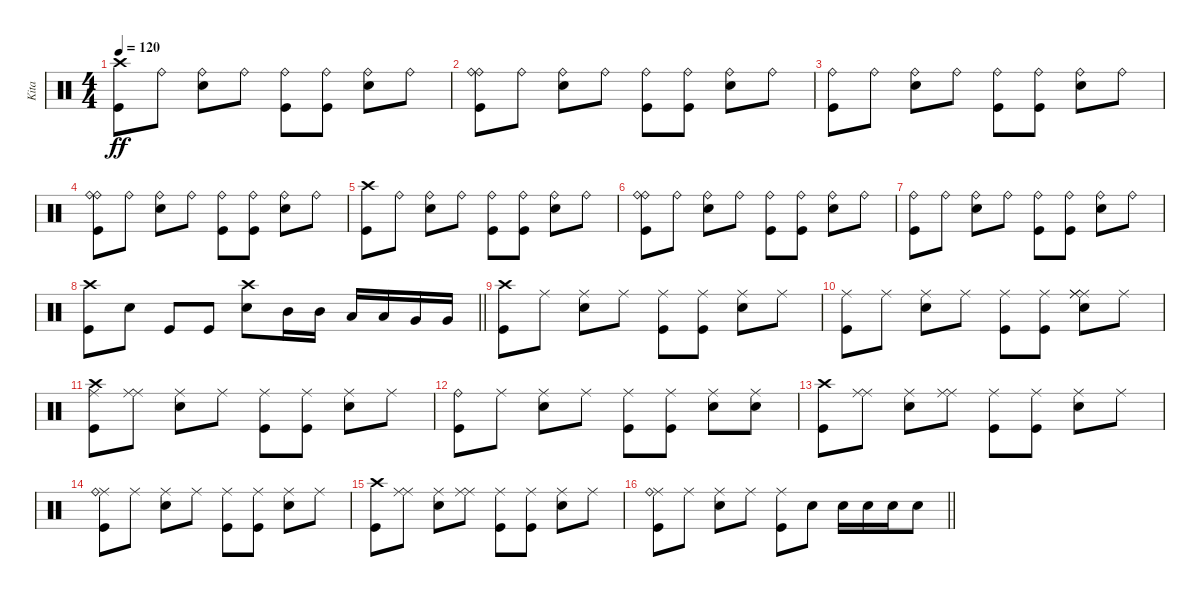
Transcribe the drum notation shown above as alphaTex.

\track ("Kita" "Kita") {instrument percussion}
\staff {score}
\articulation defaults
\ts (4 4)
\tempo 120
\clef neutral
\ks c
("Kick (hit)" "Crash high (hit)").8{dy ff} "Ride (bell)".8 ("Snare (hit) 2" "Ride (bell)").8 "Ride (bell)".8 ("Ride (bell)" "Kick (hit)").8 ("Ride (bell)" "Kick (hit)").8 ("Ride (bell)" "Snare (hit) 2").8 "Ride (bell)".8 |
("Ride (bell)" "Ride (bell)" "Kick (hit)").8 "Ride (bell)".8 ("Ride (bell)" "Snare (hit) 2").8 "Ride (bell)".8 ("Ride (bell)" "Kick (hit)").8 ("Ride (bell)" "Kick (hit)").8 ("Ride (bell)" "Snare (hit) 2").8 "Ride (bell)".8 |
("Kick (hit)" "Ride (bell)").8 "Ride (bell)".8 ("Snare (hit) 2" "Ride (bell)").8 "Ride (bell)".8 ("Ride (bell)" "Kick (hit)").8 ("Ride (bell)" "Kick (hit)").8 ("Ride (bell)" "Snare (hit) 2").8 "Ride (bell)".8 |
("Ride (bell)" "Ride (bell)" "Kick (hit)").8 "Ride (bell)".8 ("Ride (bell)" "Snare (hit) 2").8 "Ride (bell)".8 ("Ride (bell)" "Kick (hit)").8 ("Ride (bell)" "Kick (hit)").8 ("Ride (bell)" "Snare (hit) 2").8 "Ride (bell)".8 |
("Kick (hit)" "Crash high (hit)").8 "Ride (bell)".8 ("Snare (hit) 2" "Ride (bell)").8 "Ride (bell)".8 ("Ride (bell)" "Kick (hit)").8 ("Ride (bell)" "Kick (hit)").8 ("Ride (bell)" "Snare (hit) 2").8 "Ride (bell)".8 |
("Ride (bell)" "Ride (bell)" "Kick (hit)").8 "Ride (bell)".8 ("Ride (bell)" "Snare (hit) 2").8 "Ride (bell)".8 ("Ride (bell)" "Kick (hit)").8 ("Ride (bell)" "Kick (hit)").8 ("Ride (bell)" "Snare (hit) 2").8 "Ride (bell)".8 |
("Kick (hit)" "Ride (bell)").8 "Ride (bell)".8 ("Snare (hit) 2" "Ride (bell)").8 "Ride (bell)".8 ("Ride (bell)" "Kick (hit)").8 ("Ride (bell)" "Kick (hit)").8 ("Ride (bell)" "Snare (hit) 2").8 "Ride (bell)".8 |
\barLineRight lightlight
("Crash high (hit)" "Kick (hit)").8 "Snare (hit) 2".8 "Kick (hit)".8 "Kick (hit)".8 ("Crash high (hit)" "Snare (hit) 2").8 "Mid Tom (hit)".16 "Mid Tom (hit)".16 "Low Tom (hit)".16 "Low Tom (hit)".16 "Very Low Tom (hit)".16 "Very Low Tom (hit)".16 |
("Kick (hit)" "Crash high (hit)").8 "Ride (middle)".8 ("Snare (hit) 2" "Ride (middle)").8 "Ride (middle)".8 ("Ride (middle)" "Kick (hit)").8 ("Ride (middle)" "Kick (hit)").8 ("Ride (middle)" "Snare (hit) 2").8 "Ride (middle)".8 |
("Ride (middle)" "Kick (hit)").8 "Ride (middle)".8 ("Ride (middle)" "Snare (hit) 2").8 "Ride (middle)".8 ("Ride (middle)" "Kick (hit)").8 ("Ride (middle)" "Kick (hit)").8 ("Ride (middle)" "Snare (hit) 2" "Ride (middle)" "Ride (middle)").8 "Ride (middle)".8 |
("Kick (hit)" "Crash high (hit)" "Ride (middle)").8 ("Ride (middle)" "Ride (middle)").8 ("Snare (hit) 2" "Ride (middle)").8 "Ride (middle)".8 ("Ride (middle)" "Kick (hit)").8 ("Ride (middle)" "Kick (hit)").8 ("Ride (middle)" "Snare (hit) 2").8 "Ride (middle)".8 |
("Ride (bell)" "Kick (hit)").8 "Ride (middle)".8 ("Ride (middle)" "Snare (hit) 2").8 "Ride (middle)".8 ("Ride (middle)" "Kick (hit)").8 ("Ride (middle)" "Kick (hit)").8 ("Ride (middle)" "Snare (hit) 2").8 ("Ride (middle)" "Snare (hit) 2").8 |
("Kick (hit)" "Crash high (hit)").8 ("Ride (middle)" "Ride (middle)").8 ("Snare (hit) 2" "Ride (middle)").8 ("Ride (middle)" "Ride (middle)").8 ("Ride (middle)" "Kick (hit)").8 ("Ride (middle)" "Kick (hit)").8 ("Ride (middle)" "Snare (hit) 2").8 "Ride (middle)".8 |
("Ride (middle)" "Ride (bell)" "Kick (hit)").8 "Ride (middle)".8 ("Ride (middle)" "Snare (hit) 2").8 "Ride (middle)".8 ("Ride (middle)" "Kick (hit)").8 ("Ride (middle)" "Kick (hit)").8 ("Ride (middle)" "Snare (hit) 2").8 "Ride (middle)".8 |
("Kick (hit)" "Crash high (hit)").8 ("Ride (middle)" "Ride (middle)").8 ("Snare (hit) 2" "Ride (middle)").8 ("Ride (middle)" "Ride (middle)").8 ("Ride (middle)" "Kick (hit)").8 ("Ride (middle)" "Kick (hit)").8 ("Ride (middle)" "Snare (hit) 2").8 "Ride (middle)".8 |
\barLineRight lightlight
("Ride (middle)" "Ride (bell)" "Kick (hit)").8 "Ride (middle)".8 ("Ride (middle)" "Snare (hit) 2").8 "Ride (middle)".8 ("Ride (middle)" "Kick (hit)").8 "Snare (hit) 2".8 "Snare (hit) 2".16 "Snare (hit) 2".16 "Snare (hit) 2".16 "Snare (hit) 2".8
